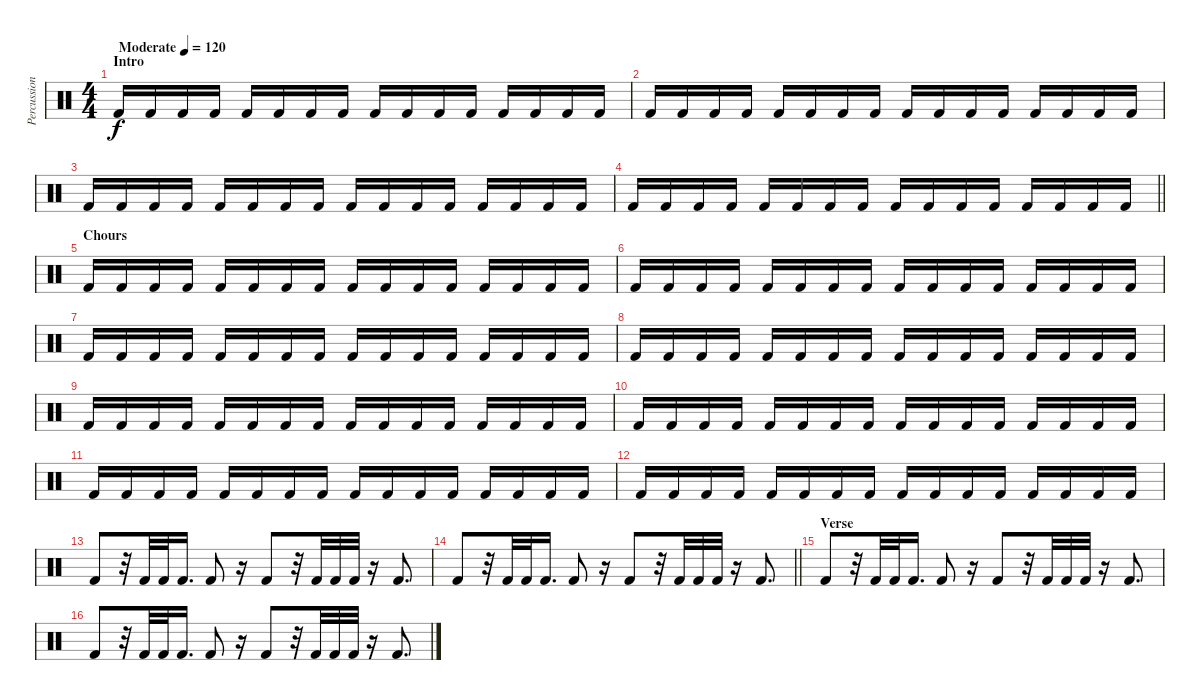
\track ("Percussioni" "Percussion") {instrument percussion}
\staff
\articulation defaults
\ts (4 4)
\section ("" "Intro")
\tempo (120 "Moderate")
\clef neutral
\ks c "Kick (hit) 2".16{dy f} "Kick (hit) 2".16 "Kick (hit) 2".16 "Kick (hit) 2".16 "Kick (hit) 2".16 "Kick (hit) 2".16 "Kick (hit) 2".16 "Kick (hit) 2".16 "Kick (hit) 2".16 "Kick (hit) 2".16 "Kick (hit) 2".16 "Kick (hit) 2".16 "Kick (hit) 2".16 "Kick (hit) 2".16 "Kick (hit) 2".16 "Kick (hit) 2".16
|
"Kick (hit) 2".16 "Kick (hit) 2".16 "Kick (hit) 2".16 "Kick (hit) 2".16 "Kick (hit) 2".16 "Kick (hit) 2".16 "Kick (hit) 2".16 "Kick (hit) 2".16 "Kick (hit) 2".16 "Kick (hit) 2".16 "Kick (hit) 2".16 "Kick (hit) 2".16 "Kick (hit) 2".16 "Kick (hit) 2".16 "Kick (hit) 2".16 "Kick (hit) 2".16 |
"Kick (hit) 2".16 "Kick (hit) 2".16 "Kick (hit) 2".16 "Kick (hit) 2".16 "Kick (hit) 2".16 "Kick (hit) 2".16 "Kick (hit) 2".16 "Kick (hit) 2".16 "Kick (hit) 2".16 "Kick (hit) 2".16 "Kick (hit) 2".16 "Kick (hit) 2".16 "Kick (hit) 2".16 "Kick (hit) 2".16 "Kick (hit) 2".16 "Kick (hit) 2".16 |
\barLineRight lightlight "Kick (hit) 2".16 "Kick (hit) 2".16 "Kick (hit) 2".16 "Kick (hit) 2".16 "Kick (hit) 2".16 "Kick (hit) 2".16 "Kick (hit) 2".16 "Kick (hit) 2".16 "Kick (hit) 2".16 "Kick (hit) 2".16 "Kick (hit) 2".16 "Kick (hit) 2".16 "Kick (hit) 2".16 "Kick (hit) 2".16 "Kick (hit) 2".16 "Kick (hit) 2".16
|
\section ("" "Chours")
"Kick (hit) 2".16 "Kick (hit) 2".16 "Kick (hit) 2".16 "Kick (hit) 2".16 "Kick (hit) 2".16 "Kick (hit) 2".16 "Kick (hit) 2".16 "Kick (hit) 2".16 "Kick (hit) 2".16 "Kick (hit) 2".16 "Kick (hit) 2".16 "Kick (hit) 2".16 "Kick (hit) 2".16 "Kick (hit) 2".16 "Kick (hit) 2".16 "Kick (hit) 2".16 |
"Kick (hit) 2".16 "Kick (hit) 2".16 "Kick (hit) 2".16 "Kick (hit) 2".16 "Kick (hit) 2".16 "Kick (hit) 2".16 "Kick (hit) 2".16 "Kick (hit) 2".16 "Kick (hit) 2".16 "Kick (hit) 2".16 "Kick (hit) 2".16 "Kick (hit) 2".16 "Kick (hit) 2".16 "Kick (hit) 2".16 "Kick (hit) 2".16 "Kick (hit) 2".16 |
"Kick (hit) 2".16 "Kick (hit) 2".16 "Kick (hit) 2".16 "Kick (hit) 2".16 "Kick (hit) 2".16 "Kick (hit) 2".16 "Kick (hit) 2".16 "Kick (hit) 2".16 "Kick (hit) 2".16 "Kick (hit) 2".16 "Kick (hit) 2".16 "Kick (hit) 2".16 "Kick (hit) 2".16 "Kick (hit) 2".16 "Kick (hit) 2".16 "Kick (hit) 2".16 |
"Kick (hit) 2".16 "Kick (hit) 2".16 "Kick (hit) 2".16 "Kick (hit) 2".16 "Kick (hit) 2".16 "Kick (hit) 2".16 "Kick (hit) 2".16 "Kick (hit) 2".16 "Kick (hit) 2".16 "Kick (hit) 2".16 "Kick (hit) 2".16 "Kick (hit) 2".16 "Kick (hit) 2".16 "Kick (hit) 2".16 "Kick (hit) 2".16 "Kick (hit) 2".16 |
"Kick (hit) 2".16 "Kick (hit) 2".16 "Kick (hit) 2".16 "Kick (hit) 2".16 "Kick (hit) 2".16 "Kick (hit) 2".16 "Kick (hit) 2".16 "Kick (hit) 2".16 "Kick (hit) 2".16 "Kick (hit) 2".16 "Kick (hit) 2".16 "Kick (hit) 2".16 "Kick (hit) 2".16 "Kick (hit) 2".16 "Kick (hit) 2".16 "Kick (hit) 2".16 |
"Kick (hit) 2".16 "Kick (hit) 2".16 "Kick (hit) 2".16 "Kick (hit) 2".16 "Kick (hit) 2".16 "Kick (hit) 2".16 "Kick (hit) 2".16 "Kick (hit) 2".16 "Kick (hit) 2".16 "Kick (hit) 2".16 "Kick (hit) 2".16 "Kick (hit) 2".16 "Kick (hit) 2".16 "Kick (hit) 2".16 "Kick (hit) 2".16 "Kick (hit) 2".16 |
"Kick (hit) 2".16 "Kick (hit) 2".16 "Kick (hit) 2".16 "Kick (hit) 2".16 "Kick (hit) 2".16 "Kick (hit) 2".16 "Kick (hit) 2".16 "Kick (hit) 2".16 "Kick (hit) 2".16 "Kick (hit) 2".16 "Kick (hit) 2".16 "Kick (hit) 2".16 "Kick (hit) 2".16 "Kick (hit) 2".16 "Kick (hit) 2".16 "Kick (hit) 2".16 |
"Kick (hit) 2".16 "Kick (hit) 2".16 "Kick (hit) 2".16 "Kick (hit) 2".16 "Kick (hit) 2".16 "Kick (hit) 2".16 "Kick (hit) 2".16 "Kick (hit) 2".16 "Kick (hit) 2".16 "Kick (hit) 2".16 "Kick (hit) 2".16 "Kick (hit) 2".16 "Kick (hit) 2".16 "Kick (hit) 2".16 "Kick (hit) 2".16 "Kick (hit) 2".16 |
"Kick (hit) 2".8 r.32 "Kick (hit) 2".32 "Kick (hit) 2".32 "Kick (hit) 2".16{d} "Kick (hit) 2".8 r.16 "Kick (hit) 2".8 r.32 "Kick (hit) 2".32 "Kick (hit) 2".32 "Kick (hit) 2".32 r.16 "Kick (hit) 2".8{d} |
\barLineRight lightlight "Kick (hit) 2".8
r.32 "Kick (hit) 2".32 "Kick (hit) 2".32 "Kick (hit) 2".16{d} "Kick (hit) 2".8 r.16 "Kick (hit) 2".8 r.32 "Kick (hit) 2".32 "Kick (hit) 2".32 "Kick (hit) 2".32 r.16 "Kick (hit) 2".8{d} |
\section ("" "Verse")
"Kick (hit) 2".8 r.32 "Kick (hit) 2".32 "Kick (hit) 2".32 "Kick (hit) 2".16{d} "Kick (hit) 2".8 r.16 "Kick (hit) 2".8 r.32 "Kick (hit) 2".32 "Kick (hit) 2".32 "Kick (hit) 2".32 r.16 "Kick (hit) 2".8{d} |
"Kick (hit) 2".8 r.32 "Kick (hit) 2".32 "Kick (hit) 2".32 "Kick (hit) 2".16{d} "Kick (hit) 2".8 r.16 "Kick (hit) 2".8 r.32 "Kick (hit) 2".32 "Kick (hit) 2".32 "Kick (hit) 2".32 r.16 "Kick (hit) 2".8{d}
